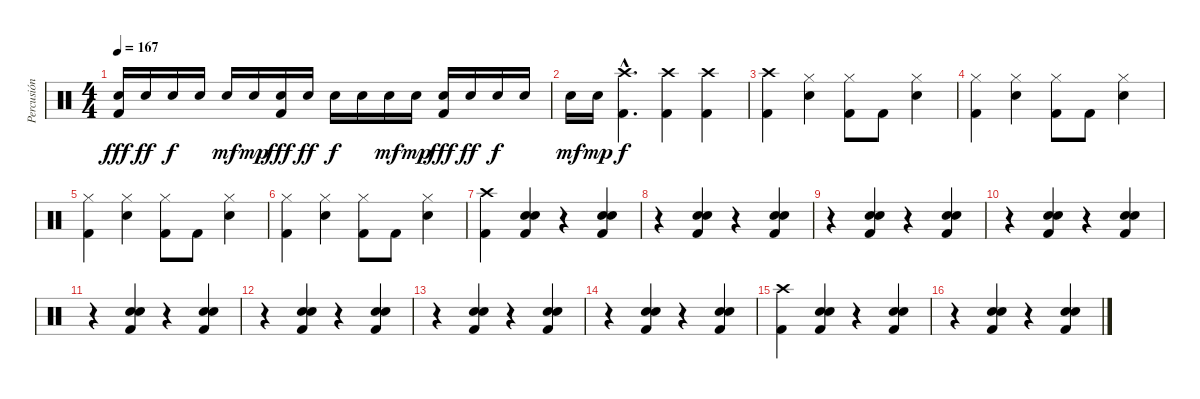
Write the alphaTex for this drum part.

\track ("Percusión" "Percusión") {instrument percussion}
\staff {score}
\articulation defaults
\ts (4 4)
\tempo 167
\clef neutral
\ks c
("Electric Snare (hit)" "Kick (hit) 2").16{dy fff} "Electric Snare (hit)".16{dy ff} "Electric Snare (hit)".16{dy f} "Electric Snare (hit)".16 "Electric Snare (hit)".16{dy mf} "Electric Snare (hit)".16{dy mp} ("Electric Snare (hit)" "Kick (hit) 2").16{dy fff} "Electric Snare (hit)".16{dy ff} "Electric Snare (hit)".16{dy f} "Electric Snare (hit)".16 "Electric Snare (hit)".16{dy mf} "Electric Snare (hit)".16{dy mp} ("Electric Snare (hit)" "Kick (hit) 2").16{dy fff} "Electric Snare (hit)".16{dy ff} "Electric Snare (hit)".16{dy f} "Electric Snare (hit)".16 |
"Electric Snare (hit)".16{dy mf} "Electric Snare (hit)".16{dy mp} ("Kick (hit) 2"{hac} "Crash high (hit)"{hac}).4{d dy f} ("Kick (hit) 2" "Crash high (hit)").4 ("Kick (hit) 2" "Crash high (hit)").4 |
("Kick (hit) 2" "Crash high (hit)").4 ("Electric Snare (hit)" "Hi-Hat (closed)").4 ("Kick (hit) 2" "Hi-Hat (closed)").8 "Kick (hit) 2".8 ("Electric Snare (hit)" "Hi-Hat (closed)").4 |
("Kick (hit) 2" "Hi-Hat (closed)").4 ("Electric Snare (hit)" "Hi-Hat (closed)").4 ("Kick (hit) 2" "Hi-Hat (closed)").8 "Kick (hit) 2".8 ("Electric Snare (hit)" "Hi-Hat (closed)").4 |
("Kick (hit) 2" "Hi-Hat (closed)").4 ("Electric Snare (hit)" "Hi-Hat (closed)").4 ("Kick (hit) 2" "Hi-Hat (closed)").8 "Kick (hit) 2".8 ("Electric Snare (hit)" "Hi-Hat (closed)").4 |
("Kick (hit) 2" "Hi-Hat (closed)").4 ("Electric Snare (hit)" "Hi-Hat (closed)").4 ("Kick (hit) 2" "Hi-Hat (closed)").8 "Kick (hit) 2".8 ("Electric Snare (hit)" "Hi-Hat (closed)").4 |
("Kick (hit) 2" "Crash high (hit)").4 ("Kick (hit) 2" "Electric Snare (hit)" "Electric Snare (hit)").4 r.4 ("Kick (hit) 2" "Electric Snare (hit)" "Electric Snare (hit)").4 |
r.4 ("Kick (hit) 2" "Electric Snare (hit)" "Electric Snare (hit)").4 r.4 ("Kick (hit) 2" "Electric Snare (hit)" "Electric Snare (hit)").4 |
r.4 ("Kick (hit) 2" "Electric Snare (hit)" "Electric Snare (hit)").4 r.4 ("Kick (hit) 2" "Electric Snare (hit)" "Electric Snare (hit)").4 |
r.4 ("Kick (hit) 2" "Electric Snare (hit)" "Electric Snare (hit)").4 r.4 ("Kick (hit) 2" "Electric Snare (hit)" "Electric Snare (hit)").4 |
r.4 ("Kick (hit) 2" "Electric Snare (hit)" "Electric Snare (hit)").4 r.4 ("Kick (hit) 2" "Electric Snare (hit)" "Electric Snare (hit)").4 |
r.4 ("Kick (hit) 2" "Electric Snare (hit)" "Electric Snare (hit)").4 r.4 ("Kick (hit) 2" "Electric Snare (hit)" "Electric Snare (hit)").4 |
r.4 ("Kick (hit) 2" "Electric Snare (hit)" "Electric Snare (hit)").4 r.4 ("Kick (hit) 2" "Electric Snare (hit)" "Electric Snare (hit)").4 |
r.4 ("Kick (hit) 2" "Electric Snare (hit)" "Electric Snare (hit)").4 r.4 ("Kick (hit) 2" "Electric Snare (hit)" "Electric Snare (hit)").4 |
("Kick (hit) 2" "Crash high (hit)").4 ("Kick (hit) 2" "Electric Snare (hit)" "Electric Snare (hit)").4 r.4 ("Kick (hit) 2" "Electric Snare (hit)" "Electric Snare (hit)").4 |
r.4 ("Kick (hit) 2" "Electric Snare (hit)" "Electric Snare (hit)").4 r.4 ("Kick (hit) 2" "Electric Snare (hit)" "Electric Snare (hit)").4
